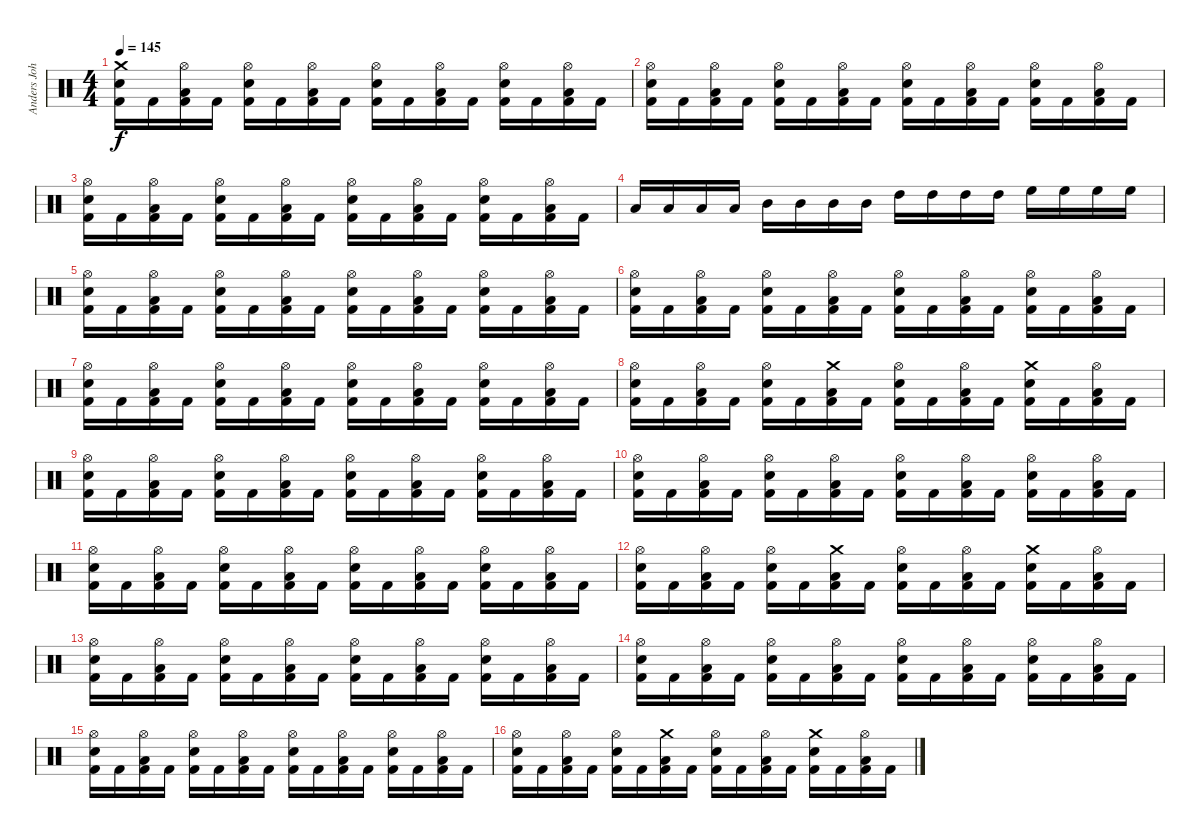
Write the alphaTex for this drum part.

\track ("Anders Johansson (Drums)" "Anders Joh") {instrument percussion}
\staff {score}
\articulation defaults
\ts (4 4)
\tempo 145
\clef neutral
\ks c
("Kick (hit) 2" "Electric Snare (hit)" "Crash medium (hit)").16{dy f} "Kick (hit) 2".16 ("Kick (hit) 2" "Low Tom (hit)" "Hi-Hat (open)").16 "Kick (hit) 2".16 ("Kick (hit) 2" "Electric Snare (hit)" "Hi-Hat (open)").16 "Kick (hit) 2".16 ("Kick (hit) 2" "Low Tom (hit)" "Hi-Hat (open)").16 "Kick (hit) 2".16 ("Kick (hit) 2" "Electric Snare (hit)" "Hi-Hat (open)").16 "Kick (hit) 2".16 ("Kick (hit) 2" "Low Tom (hit)" "Hi-Hat (open)").16 "Kick (hit) 2".16 ("Kick (hit) 2" "Electric Snare (hit)" "Hi-Hat (open)").16 "Kick (hit) 2".16 ("Kick (hit) 2" "Low Tom (hit)" "Hi-Hat (open)").16 "Kick (hit) 2".16 |
("Kick (hit) 2" "Electric Snare (hit)" "Hi-Hat (open)").16 "Kick (hit) 2".16 ("Kick (hit) 2" "Low Tom (hit)" "Hi-Hat (open)").16 "Kick (hit) 2".16 ("Kick (hit) 2" "Electric Snare (hit)" "Hi-Hat (open)").16 "Kick (hit) 2".16 ("Kick (hit) 2" "Low Tom (hit)" "Hi-Hat (open)").16 "Kick (hit) 2".16 ("Kick (hit) 2" "Electric Snare (hit)" "Hi-Hat (open)").16 "Kick (hit) 2".16 ("Kick (hit) 2" "Low Tom (hit)" "Hi-Hat (open)").16 "Kick (hit) 2".16 ("Kick (hit) 2" "Electric Snare (hit)" "Hi-Hat (open)").16 "Kick (hit) 2".16 ("Kick (hit) 2" "Low Tom (hit)" "Hi-Hat (open)").16 "Kick (hit) 2".16 |
("Kick (hit) 2" "Electric Snare (hit)" "Hi-Hat (open)").16 "Kick (hit) 2".16 ("Kick (hit) 2" "Low Tom (hit)" "Hi-Hat (open)").16 "Kick (hit) 2".16 ("Kick (hit) 2" "Electric Snare (hit)" "Hi-Hat (open)").16 "Kick (hit) 2".16 ("Kick (hit) 2" "Low Tom (hit)" "Hi-Hat (open)").16 "Kick (hit) 2".16 ("Kick (hit) 2" "Electric Snare (hit)" "Hi-Hat (open)").16 "Kick (hit) 2".16 ("Kick (hit) 2" "Low Tom (hit)" "Hi-Hat (open)").16 "Kick (hit) 2".16 ("Kick (hit) 2" "Electric Snare (hit)" "Hi-Hat (open)").16 "Kick (hit) 2".16 ("Kick (hit) 2" "Low Tom (hit)" "Hi-Hat (open)").16 "Kick (hit) 2".16 |
"Low Tom (hit)".16 "Low Tom (hit)".16 "Low Tom (hit)".16 "Low Tom (hit)".16 "Mid Tom (hit)".16 "Mid Tom (hit)".16 "Mid Tom (hit)".16 "Mid Tom (hit)".16 "High Tom (hit)".16 "High Tom (hit)".16 "High Tom (hit)".16 "High Tom (hit)".16 "High Floor Tom (hit)".16 "High Floor Tom (hit)".16 "High Floor Tom (hit)".16 "High Floor Tom (hit)".16 |
("Kick (hit) 2" "Electric Snare (hit)" "Hi-Hat (open)").16 "Kick (hit) 2".16 ("Kick (hit) 2" "Low Tom (hit)" "Hi-Hat (open)").16 "Kick (hit) 2".16 ("Kick (hit) 2" "Electric Snare (hit)" "Hi-Hat (open)").16 "Kick (hit) 2".16 ("Kick (hit) 2" "Low Tom (hit)" "Hi-Hat (open)").16 "Kick (hit) 2".16 ("Kick (hit) 2" "Electric Snare (hit)" "Hi-Hat (open)").16 "Kick (hit) 2".16 ("Kick (hit) 2" "Low Tom (hit)" "Hi-Hat (open)").16 "Kick (hit) 2".16 ("Kick (hit) 2" "Electric Snare (hit)" "Hi-Hat (open)").16 "Kick (hit) 2".16 ("Kick (hit) 2" "Low Tom (hit)" "Hi-Hat (open)").16 "Kick (hit) 2".16 |
("Kick (hit) 2" "Electric Snare (hit)" "Hi-Hat (open)").16 "Kick (hit) 2".16 ("Kick (hit) 2" "Low Tom (hit)" "Hi-Hat (open)").16 "Kick (hit) 2".16 ("Kick (hit) 2" "Electric Snare (hit)" "Hi-Hat (open)").16 "Kick (hit) 2".16 ("Kick (hit) 2" "Low Tom (hit)" "Hi-Hat (open)").16 "Kick (hit) 2".16 ("Kick (hit) 2" "Electric Snare (hit)" "Hi-Hat (open)").16 "Kick (hit) 2".16 ("Kick (hit) 2" "Low Tom (hit)" "Hi-Hat (open)").16 "Kick (hit) 2".16 ("Kick (hit) 2" "Electric Snare (hit)" "Hi-Hat (open)").16 "Kick (hit) 2".16 ("Kick (hit) 2" "Low Tom (hit)" "Hi-Hat (open)").16 "Kick (hit) 2".16 |
("Kick (hit) 2" "Electric Snare (hit)" "Hi-Hat (open)").16 "Kick (hit) 2".16 ("Kick (hit) 2" "Low Tom (hit)" "Hi-Hat (open)").16 "Kick (hit) 2".16 ("Kick (hit) 2" "Electric Snare (hit)" "Hi-Hat (open)").16 "Kick (hit) 2".16 ("Kick (hit) 2" "Low Tom (hit)" "Hi-Hat (open)").16 "Kick (hit) 2".16 ("Kick (hit) 2" "Electric Snare (hit)" "Hi-Hat (open)").16 "Kick (hit) 2".16 ("Kick (hit) 2" "Low Tom (hit)" "Hi-Hat (open)").16 "Kick (hit) 2".16 ("Kick (hit) 2" "Electric Snare (hit)" "Hi-Hat (open)").16 "Kick (hit) 2".16 ("Kick (hit) 2" "Low Tom (hit)" "Hi-Hat (open)").16 "Kick (hit) 2".16 |
("Kick (hit) 2" "Electric Snare (hit)" "Hi-Hat (open)").16 "Kick (hit) 2".16 ("Kick (hit) 2" "Low Tom (hit)" "Hi-Hat (open)").16 "Kick (hit) 2".16 ("Kick (hit) 2" "Electric Snare (hit)" "Hi-Hat (open)").16 "Kick (hit) 2".16 ("Kick (hit) 2" "Low Tom (hit)" "Crash medium (hit)").16 "Kick (hit) 2".16 ("Kick (hit) 2" "Electric Snare (hit)" "Hi-Hat (open)").16 "Kick (hit) 2".16 ("Kick (hit) 2" "Low Tom (hit)" "Hi-Hat (open)").16 "Kick (hit) 2".16 ("Kick (hit) 2" "Electric Snare (hit)" "Crash medium (hit)").16 "Kick (hit) 2".16 ("Kick (hit) 2" "Low Tom (hit)" "Hi-Hat (open)").16 "Kick (hit) 2".16 |
("Kick (hit) 2" "Electric Snare (hit)" "Hi-Hat (open)").16 "Kick (hit) 2".16 ("Kick (hit) 2" "Low Tom (hit)" "Hi-Hat (open)").16 "Kick (hit) 2".16 ("Kick (hit) 2" "Electric Snare (hit)" "Hi-Hat (open)").16 "Kick (hit) 2".16 ("Kick (hit) 2" "Low Tom (hit)" "Hi-Hat (open)").16 "Kick (hit) 2".16 ("Kick (hit) 2" "Electric Snare (hit)" "Hi-Hat (open)").16 "Kick (hit) 2".16 ("Kick (hit) 2" "Low Tom (hit)" "Hi-Hat (open)").16 "Kick (hit) 2".16 ("Kick (hit) 2" "Electric Snare (hit)" "Hi-Hat (open)").16 "Kick (hit) 2".16 ("Kick (hit) 2" "Low Tom (hit)" "Hi-Hat (open)").16 "Kick (hit) 2".16 |
("Kick (hit) 2" "Electric Snare (hit)" "Hi-Hat (open)").16 "Kick (hit) 2".16 ("Kick (hit) 2" "Low Tom (hit)" "Hi-Hat (open)").16 "Kick (hit) 2".16 ("Kick (hit) 2" "Electric Snare (hit)" "Hi-Hat (open)").16 "Kick (hit) 2".16 ("Kick (hit) 2" "Low Tom (hit)" "Hi-Hat (open)").16 "Kick (hit) 2".16 ("Kick (hit) 2" "Electric Snare (hit)" "Hi-Hat (open)").16 "Kick (hit) 2".16 ("Kick (hit) 2" "Low Tom (hit)" "Hi-Hat (open)").16 "Kick (hit) 2".16 ("Kick (hit) 2" "Electric Snare (hit)" "Hi-Hat (open)").16 "Kick (hit) 2".16 ("Kick (hit) 2" "Low Tom (hit)" "Hi-Hat (open)").16 "Kick (hit) 2".16 |
("Kick (hit) 2" "Electric Snare (hit)" "Hi-Hat (open)").16 "Kick (hit) 2".16 ("Kick (hit) 2" "Low Tom (hit)" "Hi-Hat (open)").16 "Kick (hit) 2".16 ("Kick (hit) 2" "Electric Snare (hit)" "Hi-Hat (open)").16 "Kick (hit) 2".16 ("Kick (hit) 2" "Low Tom (hit)" "Hi-Hat (open)").16 "Kick (hit) 2".16 ("Kick (hit) 2" "Electric Snare (hit)" "Hi-Hat (open)").16 "Kick (hit) 2".16 ("Kick (hit) 2" "Low Tom (hit)" "Hi-Hat (open)").16 "Kick (hit) 2".16 ("Kick (hit) 2" "Electric Snare (hit)" "Hi-Hat (open)").16 "Kick (hit) 2".16 ("Kick (hit) 2" "Low Tom (hit)" "Hi-Hat (open)").16 "Kick (hit) 2".16 |
("Kick (hit) 2" "Electric Snare (hit)" "Hi-Hat (open)").16 "Kick (hit) 2".16 ("Kick (hit) 2" "Low Tom (hit)" "Hi-Hat (open)").16 "Kick (hit) 2".16 ("Kick (hit) 2" "Electric Snare (hit)" "Hi-Hat (open)").16 "Kick (hit) 2".16 ("Kick (hit) 2" "Low Tom (hit)" "Crash medium (hit)").16 "Kick (hit) 2".16 ("Kick (hit) 2" "Electric Snare (hit)" "Hi-Hat (open)").16 "Kick (hit) 2".16 ("Kick (hit) 2" "Low Tom (hit)" "Hi-Hat (open)").16 "Kick (hit) 2".16 ("Kick (hit) 2" "Electric Snare (hit)" "Crash medium (hit)").16 "Kick (hit) 2".16 ("Kick (hit) 2" "Low Tom (hit)" "Hi-Hat (open)").16 "Kick (hit) 2".16 |
("Kick (hit) 2" "Electric Snare (hit)" "Hi-Hat (open)").16 "Kick (hit) 2".16 ("Kick (hit) 2" "Low Tom (hit)" "Hi-Hat (open)").16 "Kick (hit) 2".16 ("Kick (hit) 2" "Electric Snare (hit)" "Hi-Hat (open)").16 "Kick (hit) 2".16 ("Kick (hit) 2" "Low Tom (hit)" "Hi-Hat (open)").16 "Kick (hit) 2".16 ("Kick (hit) 2" "Electric Snare (hit)" "Hi-Hat (open)").16 "Kick (hit) 2".16 ("Kick (hit) 2" "Low Tom (hit)" "Hi-Hat (open)").16 "Kick (hit) 2".16 ("Kick (hit) 2" "Electric Snare (hit)" "Hi-Hat (open)").16 "Kick (hit) 2".16 ("Kick (hit) 2" "Low Tom (hit)" "Hi-Hat (open)").16 "Kick (hit) 2".16 |
("Kick (hit) 2" "Electric Snare (hit)" "Hi-Hat (open)").16 "Kick (hit) 2".16 ("Kick (hit) 2" "Low Tom (hit)" "Hi-Hat (open)").16 "Kick (hit) 2".16 ("Kick (hit) 2" "Electric Snare (hit)" "Hi-Hat (open)").16 "Kick (hit) 2".16 ("Kick (hit) 2" "Low Tom (hit)" "Hi-Hat (open)").16 "Kick (hit) 2".16 ("Kick (hit) 2" "Electric Snare (hit)" "Hi-Hat (open)").16 "Kick (hit) 2".16 ("Kick (hit) 2" "Low Tom (hit)" "Hi-Hat (open)").16 "Kick (hit) 2".16 ("Kick (hit) 2" "Electric Snare (hit)" "Hi-Hat (open)").16 "Kick (hit) 2".16 ("Kick (hit) 2" "Low Tom (hit)" "Hi-Hat (open)").16 "Kick (hit) 2".16 |
("Kick (hit) 2" "Electric Snare (hit)" "Hi-Hat (open)").16 "Kick (hit) 2".16 ("Kick (hit) 2" "Low Tom (hit)" "Hi-Hat (open)").16 "Kick (hit) 2".16 ("Kick (hit) 2" "Electric Snare (hit)" "Hi-Hat (open)").16 "Kick (hit) 2".16 ("Kick (hit) 2" "Low Tom (hit)" "Hi-Hat (open)").16 "Kick (hit) 2".16 ("Kick (hit) 2" "Electric Snare (hit)" "Hi-Hat (open)").16 "Kick (hit) 2".16 ("Kick (hit) 2" "Low Tom (hit)" "Hi-Hat (open)").16 "Kick (hit) 2".16 ("Kick (hit) 2" "Electric Snare (hit)" "Hi-Hat (open)").16 "Kick (hit) 2".16 ("Kick (hit) 2" "Low Tom (hit)" "Hi-Hat (open)").16 "Kick (hit) 2".16 |
("Kick (hit) 2" "Electric Snare (hit)" "Hi-Hat (open)").16 "Kick (hit) 2".16 ("Kick (hit) 2" "Low Tom (hit)" "Hi-Hat (open)").16 "Kick (hit) 2".16 ("Kick (hit) 2" "Electric Snare (hit)" "Hi-Hat (open)").16 "Kick (hit) 2".16 ("Kick (hit) 2" "Low Tom (hit)" "Crash medium (hit)").16 "Kick (hit) 2".16 ("Kick (hit) 2" "Electric Snare (hit)" "Hi-Hat (open)").16 "Kick (hit) 2".16 ("Kick (hit) 2" "Low Tom (hit)" "Hi-Hat (open)").16 "Kick (hit) 2".16 ("Kick (hit) 2" "Electric Snare (hit)" "Crash medium (hit)").16 "Kick (hit) 2".16 ("Kick (hit) 2" "Low Tom (hit)" "Hi-Hat (open)").16 "Kick (hit) 2".16
